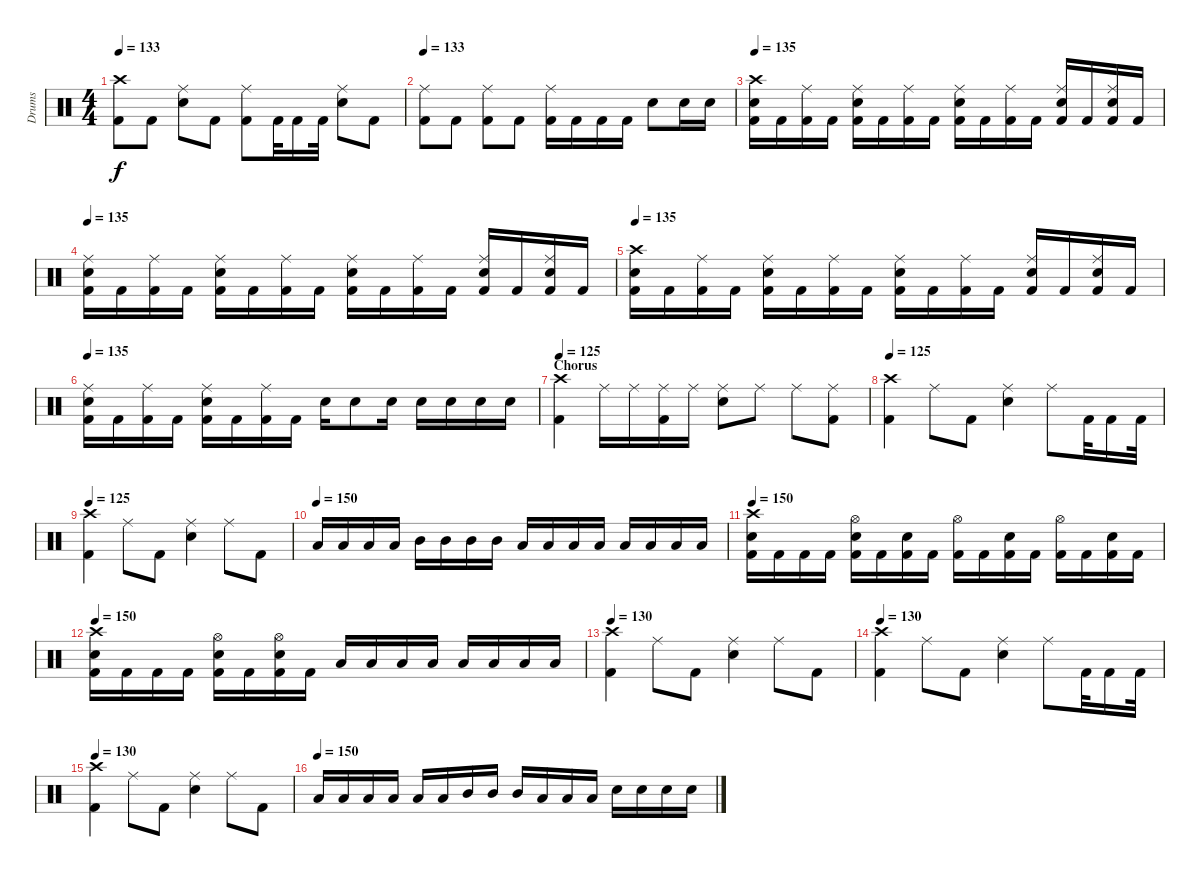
\track ("Drums" "Drums") {instrument percussion}
\staff {score}
\articulation defaults
\ts (4 4)
\tempo 133
\clef neutral
\ks c
("Crash high (hit)" "Kick (hit) 2").8{dy f} "Kick (hit) 2".8 ("Ride (middle)" "Snare (hit) 2").8 "Kick (hit) 2".8 ("Ride (middle)" "Kick (hit) 2").8 "Kick (hit) 2".32 "Kick (hit) 2".16 "Kick (hit) 2".32 ("Ride (middle)" "Snare (hit) 2").8 "Kick (hit) 2".8 |
\tempo 133
("Ride (middle)" "Kick (hit) 2").8 "Kick (hit) 2".8 ("Ride (middle)" "Kick (hit) 2").8 "Kick (hit) 2".8 ("Ride (middle)" "Kick (hit) 2").16 "Kick (hit) 2".16 "Kick (hit) 2".16 "Kick (hit) 2".16 "Snare (hit) 2".8 "Snare (hit) 2".16 "Snare (hit) 2".16 |
\tempo 135
("Crash high (hit)" "Snare (hit) 2" "Kick (hit) 2").16 "Kick (hit) 2".16 ("Ride (middle)" "Kick (hit) 2").16 "Kick (hit) 2".16 ("Ride (middle)" "Snare (hit) 2" "Kick (hit) 2").16 "Kick (hit) 2".16 ("Ride (middle)" "Kick (hit) 2").16 "Kick (hit) 2".16 ("Ride (middle)" "Snare (hit) 2" "Kick (hit) 2").16 "Kick (hit) 2".16 ("Ride (middle)" "Kick (hit) 2").16 "Kick (hit) 2".16 ("Ride (middle)" "Snare (hit) 2" "Kick (hit) 2").16 "Kick (hit) 2".16 ("Ride (middle)" "Snare (hit) 2" "Kick (hit) 2").16 "Kick (hit) 2".16 |
\tempo 135
("Ride (middle)" "Snare (hit) 2" "Kick (hit) 2").16 "Kick (hit) 2".16 ("Ride (middle)" "Kick (hit) 2").16 "Kick (hit) 2".16 ("Ride (middle)" "Snare (hit) 2" "Kick (hit) 2").16 "Kick (hit) 2".16 ("Ride (middle)" "Kick (hit) 2").16 "Kick (hit) 2".16 ("Ride (middle)" "Snare (hit) 2" "Kick (hit) 2").16 "Kick (hit) 2".16 ("Ride (middle)" "Kick (hit) 2").16 "Kick (hit) 2".16 ("Ride (middle)" "Snare (hit) 2" "Kick (hit) 2").16 "Kick (hit) 2".16 ("Ride (middle)" "Snare (hit) 2" "Kick (hit) 2").16 "Kick (hit) 2".16 |
\tempo 135
("Crash high (hit)" "Snare (hit) 2" "Kick (hit) 2").16 "Kick (hit) 2".16 ("Ride (middle)" "Kick (hit) 2").16 "Kick (hit) 2".16 ("Ride (middle)" "Snare (hit) 2" "Kick (hit) 2").16 "Kick (hit) 2".16 ("Ride (middle)" "Kick (hit) 2").16 "Kick (hit) 2".16 ("Ride (middle)" "Snare (hit) 2" "Kick (hit) 2").16 "Kick (hit) 2".16 ("Ride (middle)" "Kick (hit) 2").16 "Kick (hit) 2".16 ("Ride (middle)" "Snare (hit) 2" "Kick (hit) 2").16 "Kick (hit) 2".16 ("Ride (middle)" "Snare (hit) 2" "Kick (hit) 2").16 "Kick (hit) 2".16 |
\tempo 135
("Ride (middle)" "Snare (hit) 2" "Kick (hit) 2").16 "Kick (hit) 2".16 ("Ride (middle)" "Kick (hit) 2").16 "Kick (hit) 2".16 ("Ride (middle)" "Snare (hit) 2" "Kick (hit) 2").16 "Kick (hit) 2".16 ("Ride (middle)" "Kick (hit) 2").16 "Kick (hit) 2".16 "Snare (hit) 2".16 "Snare (hit) 2".8 "Snare (hit) 2".16 "Snare (hit) 2".16 "Snare (hit) 2".16 "Snare (hit) 2".16 "Snare (hit) 2".16 |
\section ("" "Chorus")
\tempo 125
("Crash high (hit)" "Kick (hit) 2").4 "Ride (middle)".16 "Ride (middle)".16 ("Ride (middle)" "Kick (hit) 2").16 "Ride (middle)".16 ("Ride (middle)" "Snare (hit) 2").8 "Ride (middle)".8 "Ride (middle)".8 ("Ride (middle)" "Kick (hit) 2").8 |
\tempo 125
("Crash high (hit)" "Kick (hit) 2").4 "Ride (middle)".8 "Kick (hit) 2".8 ("Ride (middle)" "Snare (hit) 2").4 "Ride (middle)".8 "Kick (hit) 2".32 "Kick (hit) 2".16 "Kick (hit) 2".32 |
\tempo 125
("Crash high (hit)" "Kick (hit) 2").4 "Ride (middle)".8 "Kick (hit) 2".8 ("Ride (middle)" "Snare (hit) 2").4 "Ride (middle)".8 "Kick (hit) 2".8 |
\tempo (150)
"Low Tom (hit)".16 "Low Tom (hit)".16 "Low Tom (hit)".16 "Low Tom (hit)".16 "Mid Tom (hit)".16 "Mid Tom (hit)".16 "Mid Tom (hit)".16 "Mid Tom (hit)".16 "Low Tom (hit)".16 "Low Tom (hit)".16 "Low Tom (hit)".16 "Low Tom (hit)".16 "Low Floor Tom (hit)".16 "Low Floor Tom (hit)".16 "Low Floor Tom (hit)".16 "Low Floor Tom (hit)".16 |
\tempo 150
("Crash high (hit)" "Snare (hit) 2" "Kick (hit) 2").16 "Kick (hit) 2".16 "Kick (hit) 2".16 "Kick (hit) 2".16 ("Hi-Hat (open)" "Snare (hit) 2" "Kick (hit) 2").16 "Kick (hit) 2".16 ("Snare (hit) 2" "Kick (hit) 2").16 "Kick (hit) 2".16 ("Hi-Hat (open)" "Kick (hit) 2").16 "Kick (hit) 2".16 ("Snare (hit) 2" "Kick (hit) 2").16 "Kick (hit) 2".16 ("Hi-Hat (open)" "Kick (hit) 2").16 "Kick (hit) 2".16 ("Snare (hit) 2" "Kick (hit) 2").16 "Kick (hit) 2".16 |
\tempo 150
("Crash high (hit)" "Snare (hit) 2" "Kick (hit) 2").16 "Kick (hit) 2".16 "Kick (hit) 2".16 "Kick (hit) 2".16 ("Hi-Hat (open)" "Snare (hit) 2" "Kick (hit) 2").16 "Kick (hit) 2".16 ("Hi-Hat (open)" "Snare (hit) 2" "Kick (hit) 2").16 "Kick (hit) 2".16 "Low Tom (hit)".16 "Low Tom (hit)".16 "Low Tom (hit)".16 "Low Tom (hit)".16 "Low Floor Tom (hit)".16 "Low Floor Tom (hit)".16 "Low Floor Tom (hit)".16 "Low Floor Tom (hit)".16 |
\tempo 130
("Crash high (hit)" "Kick (hit) 2").4 "Ride (middle)".8 "Kick (hit) 2".8 ("Ride (middle)" "Snare (hit) 2").4 "Ride (middle)".8 "Kick (hit) 2".8 |
\tempo 130
("Crash high (hit)" "Kick (hit) 2").4 "Ride (middle)".8 "Kick (hit) 2".8 ("Ride (middle)" "Snare (hit) 2").4 "Ride (middle)".8 "Kick (hit) 2".32 "Kick (hit) 2".16 "Kick (hit) 2".32 |
\tempo 130
("Crash high (hit)" "Kick (hit) 2").4 "Ride (middle)".8 "Kick (hit) 2".8 ("Ride (middle)" "Snare (hit) 2").4 "Ride (middle)".8 "Kick (hit) 2".8 |
\tempo (150)
"Low Floor Tom (hit)".16 "Low Floor Tom (hit)".16 "Low Floor Tom (hit)".16 "Low Tom (hit)".16 "Low Tom (hit)".16 "Low Tom (hit)".16 "Mid Tom (hit)".16 "Mid Tom (hit)".16 "Mid Tom (hit)".16 "Low Tom (hit)".16 "Low Tom (hit)".16 "Low Tom (hit)".16 "Snare (hit) 2".16 "Snare (hit) 2".16 "Snare (hit) 2".16 "Snare (hit) 2".16
